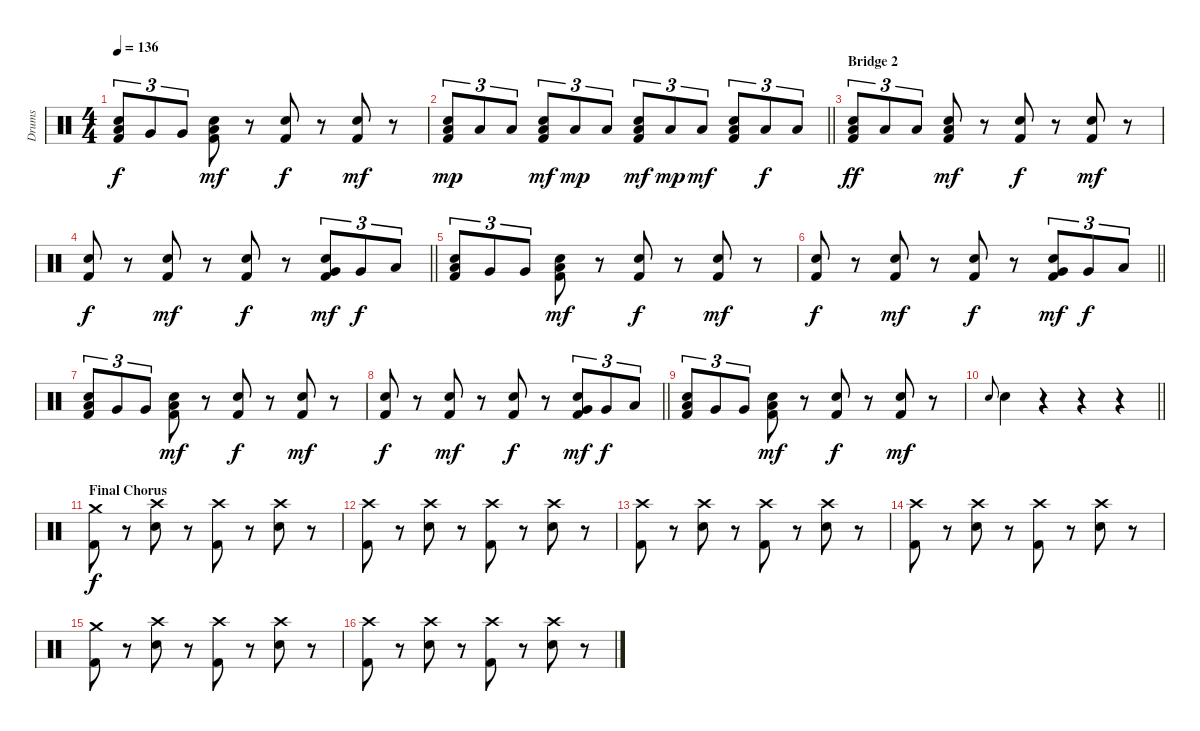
\track ("Drums" "Drums") {instrument percussion}
\staff {score}
\articulation defaults
\ts (4 4)
\tempo 136
\clef neutral
\ks c
("Hand Clap (hit)" "Low Floor Tom (hit)" "Kick (hit) 2").8{tu (3 2) dy f} "Very Low Tom (hit)".8{tu (3 2)} "Very Low Tom (hit)".8{tu (3 2)} ("Hand Clap (hit)" "Low Tom (hit)" "Kick (hit) 2").8{dy mf} r.8 ("Hand Clap (hit)" "Kick (hit) 2").8{dy f} r.8 ("Hand Clap (hit)" "Kick (hit) 2").8{dy mf} r.8 |
\barLineRight lightlight
("Hand Clap (hit)" "Low Floor Tom (hit)" "Kick (hit) 2").8{tu (3 2) dy mp} "Low Floor Tom (hit)".8{tu (3 2)} "Low Floor Tom (hit)".8{tu (3 2)} ("Hand Clap (hit)" "Low Floor Tom (hit)" "Kick (hit) 2").8{tu (3 2) dy mf} "Low Floor Tom (hit)".8{tu (3 2) dy mp} "Low Floor Tom (hit)".8{tu (3 2)} ("Hand Clap (hit)" "Low Floor Tom (hit)" "Kick (hit) 2").8{tu (3 2) dy mf} "Low Floor Tom (hit)".8{tu (3 2) dy mp} "Low Floor Tom (hit)".8{tu (3 2) dy mf} ("Hand Clap (hit)" "Low Floor Tom (hit)" "Kick (hit) 2").8{tu (3 2)} "Low Floor Tom (hit)".8{tu (3 2) dy f} "Low Floor Tom (hit)".8{tu (3 2)} |
\section ("" "Bridge 2")
("Hand Clap (hit)" "Low Floor Tom (hit)" "Kick (hit) 2").8{tu (3 2) dy ff} "Low Floor Tom (hit)".8{tu (3 2)} "Low Floor Tom (hit)".8{tu (3 2)} ("Hand Clap (hit)" "Low Floor Tom (hit)" "Kick (hit) 2").8{dy mf} r.8 ("Hand Clap (hit)" "Kick (hit) 2").8{dy f} r.8 ("Hand Clap (hit)" "Kick (hit) 2").8{dy mf} r.8 |
\barLineRight lightlight
("Hand Clap (hit)" "Kick (hit) 2").8{dy f} r.8 ("Hand Clap (hit)" "Kick (hit) 2").8{dy mf} r.8 ("Hand Clap (hit)" "Kick (hit) 2").8{dy f} r.8 ("Hand Clap (hit)" "Very Low Tom (hit)" "Kick (hit) 2").8{tu (3 2) dy mf} "Very Low Tom (hit)".8{tu (3 2) dy f} "Low Floor Tom (hit)".8{tu (3 2)} |
("Hand Clap (hit)" "Low Floor Tom (hit)" "Kick (hit) 2").8{tu (3 2)} "Very Low Tom (hit)".8{tu (3 2)} "Very Low Tom (hit)".8{tu (3 2)} ("Hand Clap (hit)" "Low Tom (hit)" "Kick (hit) 2").8{dy mf} r.8 ("Hand Clap (hit)" "Kick (hit) 2").8{dy f} r.8 ("Hand Clap (hit)" "Kick (hit) 2").8{dy mf} r.8 |
\barLineRight lightlight
("Hand Clap (hit)" "Kick (hit) 2").8{dy f} r.8 ("Hand Clap (hit)" "Kick (hit) 2").8{dy mf} r.8 ("Hand Clap (hit)" "Kick (hit) 2").8{dy f} r.8 ("Hand Clap (hit)" "Very Low Tom (hit)" "Kick (hit) 2").8{tu (3 2) dy mf} "Very Low Tom (hit)".8{tu (3 2) dy f} "Low Floor Tom (hit)".8{tu (3 2)} |
("Hand Clap (hit)" "Low Floor Tom (hit)" "Kick (hit) 2").8{tu (3 2)} "Very Low Tom (hit)".8{tu (3 2)} "Very Low Tom (hit)".8{tu (3 2)} ("Hand Clap (hit)" "Low Tom (hit)" "Kick (hit) 2").8{dy mf} r.8 ("Hand Clap (hit)" "Kick (hit) 2").8{dy f} r.8 ("Hand Clap (hit)" "Kick (hit) 2").8{dy mf} r.8 |
\barLineRight lightlight
("Hand Clap (hit)" "Kick (hit) 2").8{dy f} r.8 ("Hand Clap (hit)" "Kick (hit) 2").8{dy mf} r.8 ("Hand Clap (hit)" "Kick (hit) 2").8{dy f} r.8 ("Hand Clap (hit)" "Very Low Tom (hit)" "Kick (hit) 2").8{tu (3 2) dy mf} "Very Low Tom (hit)".8{tu (3 2) dy f} "Low Floor Tom (hit)".8{tu (3 2)} |
("Hand Clap (hit)" "Low Floor Tom (hit)" "Kick (hit) 2").8{tu (3 2)} "Very Low Tom (hit)".8{tu (3 2)} "Very Low Tom (hit)".8{tu (3 2)} ("Hand Clap (hit)" "Low Tom (hit)" "Kick (hit) 2").8{dy mf} r.8 ("Hand Clap (hit)" "Kick (hit) 2").8{dy f} r.8 ("Hand Clap (hit)" "Kick (hit) 2").8{dy mf} r.8 |
\barLineRight lightlight "Electric Snare (hit)".8{gr onbeat} "Electric Snare (hit)".4
r.4 r.4 r.4 |
\section ("" "Final Chorus")
("Crash medium (hit)" "Kick (hit) 2").8{dy f} r.8 ("Crash high (hit)" "Electric Snare (hit)").8 r.8 ("Crash high (hit)" "Kick (hit) 2").8 r.8 ("Crash high (hit)" "Electric Snare (hit)").8 r.8 |
("Crash high (hit)" "Kick (hit) 2").8 r.8 ("Crash high (hit)" "Electric Snare (hit)").8 r.8 ("Crash high (hit)" "Kick (hit) 2").8 r.8 ("Crash high (hit)" "Electric Snare (hit)").8 r.8 |
("Crash high (hit)" "Kick (hit) 2").8 r.8 ("Crash high (hit)" "Electric Snare (hit)").8 r.8 ("Crash high (hit)" "Kick (hit) 2").8 r.8 ("Crash high (hit)" "Electric Snare (hit)").8 r.8 |
("Crash high (hit)" "Kick (hit) 2").8 r.8 ("Crash high (hit)" "Electric Snare (hit)").8 r.8 ("Crash high (hit)" "Kick (hit) 2").8 r.8 ("Crash high (hit)" "Electric Snare (hit)").8 r.8 |
("Crash medium (hit)" "Kick (hit) 2").8 r.8 ("Crash high (hit)" "Electric Snare (hit)").8 r.8 ("Crash high (hit)" "Kick (hit) 2").8 r.8 ("Crash high (hit)" "Electric Snare (hit)").8 r.8 |
("Crash high (hit)" "Kick (hit) 2").8 r.8 ("Crash high (hit)" "Electric Snare (hit)").8 r.8 ("Crash high (hit)" "Kick (hit) 2").8 r.8 ("Crash high (hit)" "Electric Snare (hit)").8 r.8
